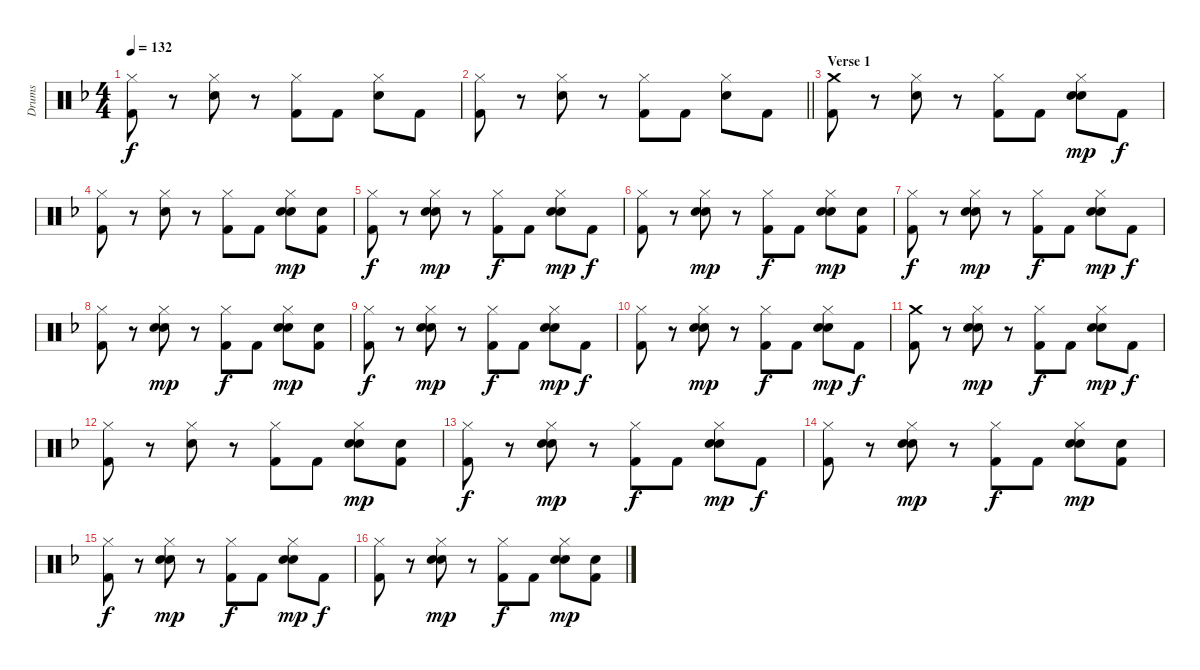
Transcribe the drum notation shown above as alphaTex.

\track ("Drums" "Drums") {instrument percussion}
\staff {score}
\articulation defaults
\ts (4 4)
\tempo 132
\clef neutral
\ks f
("Hi-Hat (closed)" "Kick (hit) 2").8{dy f} r.8 ("Hi-Hat (closed)" "Snare (hit) 2").8 r.8 ("Hi-Hat (closed)" "Kick (hit) 2").8 "Kick (hit) 2".8 ("Hi-Hat (closed)" "Snare (hit) 2").8 "Kick (hit) 2".8 |
\barLineRight lightlight
("Hi-Hat (closed)" "Kick (hit) 2").8 r.8 ("Hi-Hat (closed)" "Snare (hit) 2").8 r.8 ("Hi-Hat (closed)" "Kick (hit) 2").8 "Kick (hit) 2".8 ("Hi-Hat (closed)" "Snare (hit) 2").8 "Kick (hit) 2".8 |
\section ("" "Verse 1")
("Crash medium (hit)" "Kick (hit) 2").8 r.8 ("Hi-Hat (closed)" "Snare (hit) 2").8 r.8 ("Hi-Hat (closed)" "Kick (hit) 2").8 "Kick (hit) 2".8 ("Hi-Hat (closed)" "Hand Clap (hit)" "Snare (hit) 2").8{dy mp} "Kick (hit) 2".8{dy f} |
("Hi-Hat (closed)" "Kick (hit) 2").8 r.8 ("Hi-Hat (closed)" "Snare (hit) 2").8 r.8 ("Hi-Hat (closed)" "Kick (hit) 2").8 "Kick (hit) 2".8 ("Hi-Hat (closed)" "Hand Clap (hit)" "Snare (hit) 2").8{dy mp} ("Hand Clap (hit)" "Kick (hit) 2").8 |
("Hi-Hat (closed)" "Kick (hit) 2").8{dy f} r.8 ("Hi-Hat (closed)" "Hand Clap (hit)" "Snare (hit) 2").8{dy mp} r.8 ("Hi-Hat (closed)" "Kick (hit) 2").8{dy f} "Kick (hit) 2".8 ("Hi-Hat (closed)" "Hand Clap (hit)" "Snare (hit) 2").8{dy mp} "Kick (hit) 2".8{dy f} |
("Hi-Hat (closed)" "Kick (hit) 2").8 r.8 ("Hi-Hat (closed)" "Hand Clap (hit)" "Snare (hit) 2").8{dy mp} r.8 ("Hi-Hat (closed)" "Kick (hit) 2").8{dy f} "Kick (hit) 2".8 ("Hi-Hat (closed)" "Hand Clap (hit)" "Snare (hit) 2").8{dy mp} ("Hand Clap (hit)" "Kick (hit) 2").8 |
("Hi-Hat (closed)" "Kick (hit) 2").8{dy f} r.8 ("Hi-Hat (closed)" "Hand Clap (hit)" "Snare (hit) 2").8{dy mp} r.8 ("Hi-Hat (closed)" "Kick (hit) 2").8{dy f} "Kick (hit) 2".8 ("Hi-Hat (closed)" "Hand Clap (hit)" "Snare (hit) 2").8{dy mp} "Kick (hit) 2".8{dy f} |
("Hi-Hat (closed)" "Kick (hit) 2").8 r.8 ("Hi-Hat (closed)" "Hand Clap (hit)" "Snare (hit) 2").8{dy mp} r.8 ("Hi-Hat (closed)" "Kick (hit) 2").8{dy f} "Kick (hit) 2".8 ("Hi-Hat (closed)" "Hand Clap (hit)" "Snare (hit) 2").8{dy mp} ("Hand Clap (hit)" "Kick (hit) 2").8 |
("Hi-Hat (closed)" "Kick (hit) 2").8{dy f} r.8 ("Hi-Hat (closed)" "Hand Clap (hit)" "Snare (hit) 2").8{dy mp} r.8 ("Hi-Hat (closed)" "Kick (hit) 2").8{dy f} "Kick (hit) 2".8 ("Hi-Hat (closed)" "Hand Clap (hit)" "Snare (hit) 2").8{dy mp} "Kick (hit) 2".8{dy f} |
("Hi-Hat (closed)" "Kick (hit) 2").8 r.8 ("Hi-Hat (closed)" "Hand Clap (hit)" "Snare (hit) 2").8{dy mp} r.8 ("Hi-Hat (closed)" "Kick (hit) 2").8{dy f} "Kick (hit) 2".8 ("Hi-Hat (closed)" "Hand Clap (hit)" "Snare (hit) 2").8{dy mp} "Kick (hit) 2".8{dy f} |
("Crash medium (hit)" "Kick (hit) 2").8 r.8 ("Hi-Hat (closed)" "Hand Clap (hit)" "Snare (hit) 2").8{dy mp} r.8 ("Hi-Hat (closed)" "Kick (hit) 2").8{dy f} "Kick (hit) 2".8 ("Hi-Hat (closed)" "Hand Clap (hit)" "Snare (hit) 2").8{dy mp} "Kick (hit) 2".8{dy f} |
("Hi-Hat (closed)" "Kick (hit) 2").8 r.8 ("Hi-Hat (closed)" "Snare (hit) 2").8 r.8 ("Hi-Hat (closed)" "Kick (hit) 2").8 "Kick (hit) 2".8 ("Hi-Hat (closed)" "Hand Clap (hit)" "Snare (hit) 2").8{dy mp} ("Hand Clap (hit)" "Kick (hit) 2").8 |
("Hi-Hat (closed)" "Kick (hit) 2").8{dy f} r.8 ("Hi-Hat (closed)" "Hand Clap (hit)" "Snare (hit) 2").8{dy mp} r.8 ("Hi-Hat (closed)" "Kick (hit) 2").8{dy f} "Kick (hit) 2".8 ("Hi-Hat (closed)" "Hand Clap (hit)" "Snare (hit) 2").8{dy mp} "Kick (hit) 2".8{dy f} |
("Hi-Hat (closed)" "Kick (hit) 2").8 r.8 ("Hi-Hat (closed)" "Hand Clap (hit)" "Snare (hit) 2").8{dy mp} r.8 ("Hi-Hat (closed)" "Kick (hit) 2").8{dy f} "Kick (hit) 2".8 ("Hi-Hat (closed)" "Hand Clap (hit)" "Snare (hit) 2").8{dy mp} ("Hand Clap (hit)" "Kick (hit) 2").8 |
("Hi-Hat (closed)" "Kick (hit) 2").8{dy f} r.8 ("Hi-Hat (closed)" "Hand Clap (hit)" "Snare (hit) 2").8{dy mp} r.8 ("Hi-Hat (closed)" "Kick (hit) 2").8{dy f} "Kick (hit) 2".8 ("Hi-Hat (closed)" "Hand Clap (hit)" "Snare (hit) 2").8{dy mp} "Kick (hit) 2".8{dy f} |
("Hi-Hat (closed)" "Kick (hit) 2").8 r.8 ("Hi-Hat (closed)" "Hand Clap (hit)" "Snare (hit) 2").8{dy mp} r.8 ("Hi-Hat (closed)" "Kick (hit) 2").8{dy f} "Kick (hit) 2".8 ("Hi-Hat (closed)" "Hand Clap (hit)" "Snare (hit) 2").8{dy mp} ("Hand Clap (hit)" "Kick (hit) 2").8
